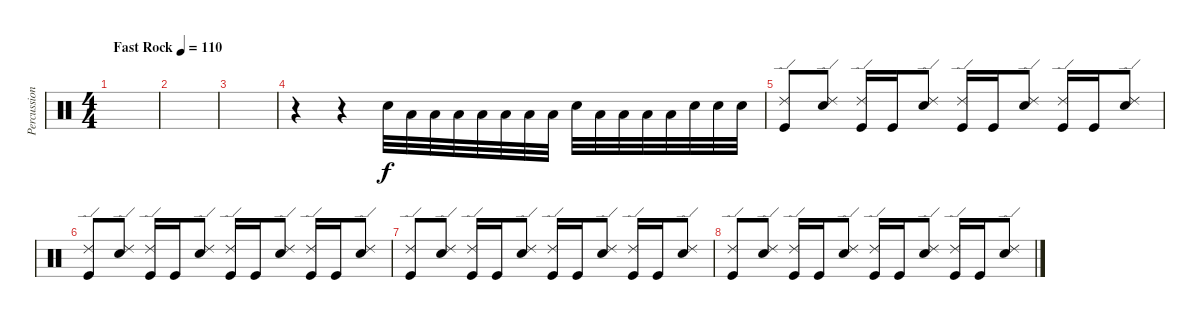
\track ("Percussion" "Percussion") {instrument percussion}
\staff {score}
\articulation defaults
\ts (4 4)
\tempo (110 "Fast Rock")
\clef neutral
\ks c
|
|
|
r.4 r.4 "Snare (hit) 2".32 "Low Tom (hit)".32 "Low Tom (hit)".32 "Low Tom (hit)".32 "Low Tom (hit)".32 "Low Tom (hit)".32 "Low Tom (hit)".32 "Low Tom (hit)".32 "Snare (hit) 2".32 "Low Tom (hit)".32 "Low Tom (hit)".32 "Low Tom (hit)".32 "Low Tom (hit)".32 "Snare (hit) 2".32 "Snare (hit) 2".32 "Snare (hit) 2".32 |
("Ride (edge) 2" "Kick (hit)").8 ("Ride (edge) 2" "Snare (hit) 2").8 ("Ride (edge) 2" "Kick (hit)").16 "Kick (hit)".16 ("Ride (edge) 2" "Snare (hit) 2").8 ("Ride (edge) 2" "Kick (hit)").16 "Kick (hit)".16 ("Ride (edge) 2" "Snare (hit) 2").8 ("Ride (edge) 2" "Kick (hit)").16 "Kick (hit)".16 ("Ride (edge) 2" "Snare (hit) 2").8 |
("Ride (edge) 2" "Kick (hit)").8 ("Ride (edge) 2" "Snare (hit) 2").8 ("Ride (edge) 2" "Kick (hit)").16 "Kick (hit)".16 ("Ride (edge) 2" "Snare (hit) 2").8 ("Ride (edge) 2" "Kick (hit)").16 "Kick (hit)".16 ("Ride (edge) 2" "Snare (hit) 2").8 ("Ride (edge) 2" "Kick (hit)").16 "Kick (hit)".16 ("Ride (edge) 2" "Snare (hit) 2").8 |
("Ride (edge) 2" "Kick (hit)").8 ("Ride (edge) 2" "Snare (hit) 2").8 ("Ride (edge) 2" "Kick (hit)").16 "Kick (hit)".16 ("Ride (edge) 2" "Snare (hit) 2").8 ("Ride (edge) 2" "Kick (hit)").16 "Kick (hit)".16 ("Ride (edge) 2" "Snare (hit) 2").8 ("Ride (edge) 2" "Kick (hit)").16 "Kick (hit)".16 ("Ride (edge) 2" "Snare (hit) 2").8 |
("Ride (edge) 2" "Kick (hit)").8 ("Ride (edge) 2" "Snare (hit) 2").8 ("Ride (edge) 2" "Kick (hit)").16 "Kick (hit)".16 ("Ride (edge) 2" "Snare (hit) 2").8 ("Ride (edge) 2" "Kick (hit)").16 "Kick (hit)".16 ("Ride (edge) 2" "Snare (hit) 2").8 ("Ride (edge) 2" "Kick (hit)").16 "Kick (hit)".16 ("Ride (edge) 2" "Snare (hit) 2").8
